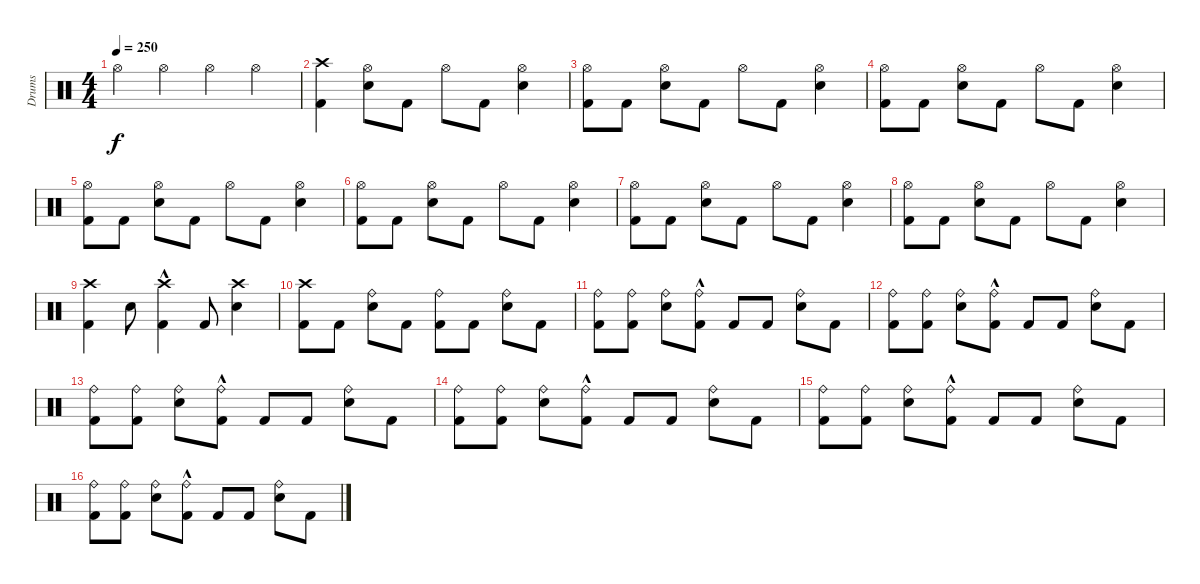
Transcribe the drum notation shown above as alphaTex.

\track ("Drums" "Drums") {instrument percussion}
\staff {score}
\articulation defaults
\ts (4 4)
\tempo 250
\clef neutral
\ks c "Hi-Hat (open)".4{dy f} "Hi-Hat (open)".4 "Hi-Hat (open)".4 "Hi-Hat (open)".4
|
("Crash high (hit)" "Kick (hit) 2").4 ("Snare (hit) 2" "Hi-Hat (open)").8 "Kick (hit) 2".8 "Hi-Hat (open)".8 "Kick (hit) 2".8 ("Hi-Hat (open)" "Snare (hit) 2").4 |
("Kick (hit) 2" "Hi-Hat (open)").8 "Kick (hit) 2".8 ("Snare (hit) 2" "Hi-Hat (open)").8 "Kick (hit) 2".8 "Hi-Hat (open)".8 "Kick (hit) 2".8 ("Hi-Hat (open)" "Snare (hit) 2").4 |
("Kick (hit) 2" "Hi-Hat (open)").8 "Kick (hit) 2".8 ("Snare (hit) 2" "Hi-Hat (open)").8 "Kick (hit) 2".8 "Hi-Hat (open)".8 "Kick (hit) 2".8 ("Hi-Hat (open)" "Snare (hit) 2").4 |
("Kick (hit) 2" "Hi-Hat (open)").8 "Kick (hit) 2".8 ("Snare (hit) 2" "Hi-Hat (open)").8 "Kick (hit) 2".8 "Hi-Hat (open)".8 "Kick (hit) 2".8 ("Hi-Hat (open)" "Snare (hit) 2").4 |
("Kick (hit) 2" "Hi-Hat (open)").8 "Kick (hit) 2".8 ("Snare (hit) 2" "Hi-Hat (open)").8 "Kick (hit) 2".8 "Hi-Hat (open)".8 "Kick (hit) 2".8 ("Hi-Hat (open)" "Snare (hit) 2").4 |
("Kick (hit) 2" "Hi-Hat (open)").8 "Kick (hit) 2".8 ("Snare (hit) 2" "Hi-Hat (open)").8 "Kick (hit) 2".8 "Hi-Hat (open)".8 "Kick (hit) 2".8 ("Hi-Hat (open)" "Snare (hit) 2").4 |
("Kick (hit) 2" "Hi-Hat (open)").8 "Kick (hit) 2".8 ("Snare (hit) 2" "Hi-Hat (open)").8 "Kick (hit) 2".8 "Hi-Hat (open)".8 "Kick (hit) 2".8 ("Hi-Hat (open)" "Snare (hit) 2").4 |
("Kick (hit) 2" "Crash high (hit)").4 "Snare (hit) 2".8 ("Crash high (hit)"{hac} "Kick (hit) 2").4 "Kick (hit) 2".8 ("Crash high (hit)" "Snare (hit) 2").4 |
("Crash high (hit)" "Kick (hit) 2").8 "Kick (hit) 2".8 ("Ride (bell)" "Snare (hit) 2").8 "Kick (hit) 2".8 ("Ride (bell)" "Kick (hit) 2").8 "Kick (hit) 2".8 ("Ride (bell)" "Snare (hit) 2").8 "Kick (hit) 2".8 |
("Kick (hit) 2" "Ride (bell)").8 ("Kick (hit) 2" "Ride (bell)").8 ("Ride (bell)" "Snare (hit) 2").8 ("Kick (hit) 2" "Ride (bell)"{hac}).8 "Kick (hit) 2".8 "Kick (hit) 2".8 ("Ride (bell)" "Snare (hit) 2").8 "Kick (hit) 2".8 |
("Kick (hit) 2" "Ride (bell)").8 ("Ride (bell)" "Kick (hit) 2").8 ("Snare (hit) 2" "Ride (bell)").8 ("Ride (bell)"{hac} "Kick (hit) 2").8 "Kick (hit) 2".8 "Kick (hit) 2".8 ("Ride (bell)" "Snare (hit) 2").8 "Kick (hit) 2".8 |
("Kick (hit) 2" "Ride (bell)").8 ("Ride (bell)" "Kick (hit) 2").8 ("Snare (hit) 2" "Ride (bell)").8 ("Ride (bell)"{hac} "Kick (hit) 2").8 "Kick (hit) 2".8 "Kick (hit) 2".8 ("Ride (bell)" "Snare (hit) 2").8 "Kick (hit) 2".8 |
("Kick (hit) 2" "Ride (bell)").8 ("Ride (bell)" "Kick (hit) 2").8 ("Snare (hit) 2" "Ride (bell)").8 ("Ride (bell)"{hac} "Kick (hit) 2").8 "Kick (hit) 2".8 "Kick (hit) 2".8 ("Ride (bell)" "Snare (hit) 2").8 "Kick (hit) 2".8 |
("Kick (hit) 2" "Ride (bell)").8 ("Ride (bell)" "Kick (hit) 2").8 ("Snare (hit) 2" "Ride (bell)").8 ("Ride (bell)"{hac} "Kick (hit) 2").8 "Kick (hit) 2".8 "Kick (hit) 2".8 ("Ride (bell)" "Snare (hit) 2").8 "Kick (hit) 2".8 |
("Kick (hit) 2" "Ride (bell)").8 ("Ride (bell)" "Kick (hit) 2").8 ("Snare (hit) 2" "Ride (bell)").8 ("Ride (bell)"{hac} "Kick (hit) 2").8 "Kick (hit) 2".8 "Kick (hit) 2".8 ("Ride (bell)" "Snare (hit) 2").8 "Kick (hit) 2".8
